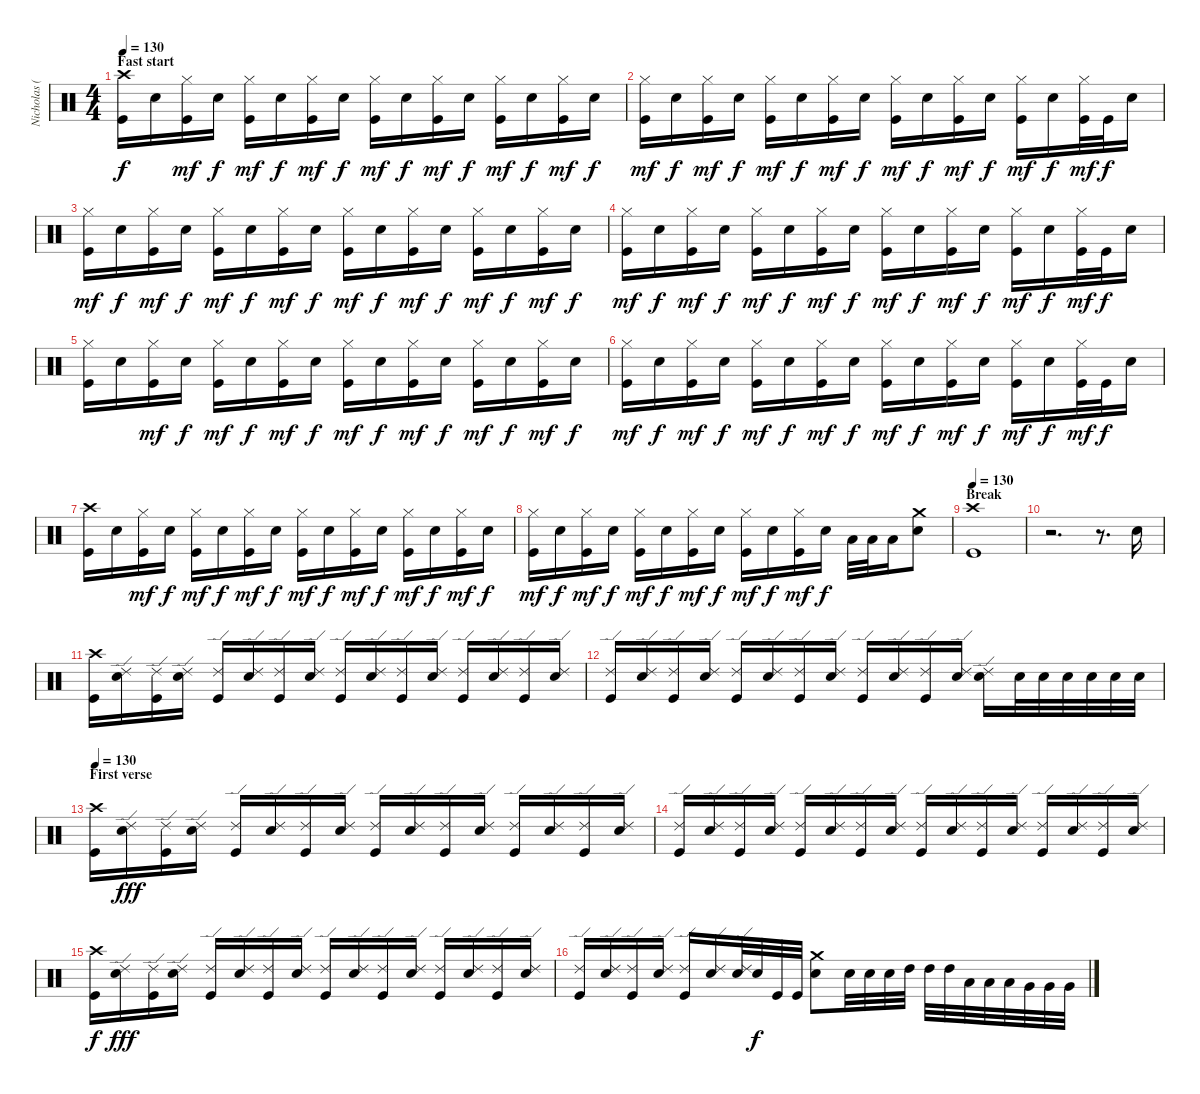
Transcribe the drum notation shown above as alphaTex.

\track ("Nicholas (Drums)" "Nicholas (") {instrument percussion}
\staff {score}
\articulation defaults
\ts (4 4)
\section ("" "Fast start")
\tempo 130
\clef neutral
\ks c
("Crash high (hit)" "Kick (hit)").16{dy f volume 16} "Electric Snare (hit)".16 ("Hi-Hat (closed)" "Kick (hit)").16{dy mf} "Electric Snare (hit)".16{dy f} ("Hi-Hat (closed)" "Kick (hit)").16{dy mf} "Electric Snare (hit)".16{dy f} ("Hi-Hat (closed)" "Kick (hit)").16{dy mf} "Electric Snare (hit)".16{dy f} ("Hi-Hat (closed)" "Kick (hit)").16{dy mf} "Electric Snare (hit)".16{dy f} ("Hi-Hat (closed)" "Kick (hit)").16{dy mf} "Electric Snare (hit)".16{dy f} ("Hi-Hat (closed)" "Kick (hit)").16{dy mf} "Electric Snare (hit)".16{dy f} ("Hi-Hat (closed)" "Kick (hit)").16{dy mf} "Electric Snare (hit)".16{dy f} |
("Hi-Hat (closed)" "Kick (hit)").16{dy mf} "Electric Snare (hit)".16{dy f} ("Hi-Hat (closed)" "Kick (hit)").16{dy mf} "Electric Snare (hit)".16{dy f} ("Hi-Hat (closed)" "Kick (hit)").16{dy mf} "Electric Snare (hit)".16{dy f} ("Hi-Hat (closed)" "Kick (hit)").16{dy mf} "Electric Snare (hit)".16{dy f} ("Hi-Hat (closed)" "Kick (hit)").16{dy mf} "Electric Snare (hit)".16{dy f} ("Hi-Hat (closed)" "Kick (hit)").16{dy mf} "Electric Snare (hit)".16{dy f} ("Hi-Hat (closed)" "Kick (hit)").16{dy mf} "Electric Snare (hit)".16{dy f} ("Hi-Hat (closed)" "Kick (hit)").32{dy mf} "Kick (hit)".32{dy f} "Electric Snare (hit)".16 |
("Hi-Hat (closed)" "Kick (hit)").16{dy mf} "Electric Snare (hit)".16{dy f} ("Hi-Hat (closed)" "Kick (hit)").16{dy mf} "Electric Snare (hit)".16{dy f} ("Hi-Hat (closed)" "Kick (hit)").16{dy mf} "Electric Snare (hit)".16{dy f} ("Hi-Hat (closed)" "Kick (hit)").16{dy mf} "Electric Snare (hit)".16{dy f} ("Hi-Hat (closed)" "Kick (hit)").16{dy mf} "Electric Snare (hit)".16{dy f} ("Hi-Hat (closed)" "Kick (hit)").16{dy mf} "Electric Snare (hit)".16{dy f} ("Hi-Hat (closed)" "Kick (hit)").16{dy mf} "Electric Snare (hit)".16{dy f} ("Hi-Hat (closed)" "Kick (hit)").16{dy mf} "Electric Snare (hit)".16{dy f} |
("Hi-Hat (closed)" "Kick (hit)").16{dy mf} "Electric Snare (hit)".16{dy f} ("Hi-Hat (closed)" "Kick (hit)").16{dy mf} "Electric Snare (hit)".16{dy f} ("Hi-Hat (closed)" "Kick (hit)").16{dy mf} "Electric Snare (hit)".16{dy f} ("Hi-Hat (closed)" "Kick (hit)").16{dy mf} "Electric Snare (hit)".16{dy f} ("Hi-Hat (closed)" "Kick (hit)").16{dy mf} "Electric Snare (hit)".16{dy f} ("Hi-Hat (closed)" "Kick (hit)").16{dy mf} "Electric Snare (hit)".16{dy f} ("Hi-Hat (closed)" "Kick (hit)").16{dy mf} "Electric Snare (hit)".16{dy f} ("Hi-Hat (closed)" "Kick (hit)").32{dy mf} "Kick (hit)".32{dy f} "Electric Snare (hit)".16 |
("Hi-Hat (closed)" "Kick (hit)").16 "Electric Snare (hit)".16 ("Hi-Hat (closed)" "Kick (hit)").16{dy mf} "Electric Snare (hit)".16{dy f} ("Hi-Hat (closed)" "Kick (hit)").16{dy mf} "Electric Snare (hit)".16{dy f} ("Hi-Hat (closed)" "Kick (hit)").16{dy mf} "Electric Snare (hit)".16{dy f} ("Hi-Hat (closed)" "Kick (hit)").16{dy mf} "Electric Snare (hit)".16{dy f} ("Hi-Hat (closed)" "Kick (hit)").16{dy mf} "Electric Snare (hit)".16{dy f} ("Hi-Hat (closed)" "Kick (hit)").16{dy mf} "Electric Snare (hit)".16{dy f} ("Hi-Hat (closed)" "Kick (hit)").16{dy mf} "Electric Snare (hit)".16{dy f} |
("Hi-Hat (closed)" "Kick (hit)").16{dy mf} "Electric Snare (hit)".16{dy f} ("Hi-Hat (closed)" "Kick (hit)").16{dy mf} "Electric Snare (hit)".16{dy f} ("Hi-Hat (closed)" "Kick (hit)").16{dy mf} "Electric Snare (hit)".16{dy f} ("Hi-Hat (closed)" "Kick (hit)").16{dy mf} "Electric Snare (hit)".16{dy f} ("Hi-Hat (closed)" "Kick (hit)").16{dy mf} "Electric Snare (hit)".16{dy f} ("Hi-Hat (closed)" "Kick (hit)").16{dy mf} "Electric Snare (hit)".16{dy f} ("Hi-Hat (closed)" "Kick (hit)").16{dy mf} "Electric Snare (hit)".16{dy f} ("Hi-Hat (closed)" "Kick (hit)").32{dy mf} "Kick (hit)".32{dy f} "Electric Snare (hit)".16 |
("Crash high (hit)" "Kick (hit)").16 "Electric Snare (hit)".16 ("Hi-Hat (closed)" "Kick (hit)").16{dy mf} "Electric Snare (hit)".16{dy f} ("Hi-Hat (closed)" "Kick (hit)").16{dy mf} "Electric Snare (hit)".16{dy f} ("Hi-Hat (closed)" "Kick (hit)").16{dy mf} "Electric Snare (hit)".16{dy f} ("Hi-Hat (closed)" "Kick (hit)").16{dy mf} "Electric Snare (hit)".16{dy f} ("Hi-Hat (closed)" "Kick (hit)").16{dy mf} "Electric Snare (hit)".16{dy f} ("Hi-Hat (closed)" "Kick (hit)").16{dy mf} "Electric Snare (hit)".16{dy f} ("Hi-Hat (closed)" "Kick (hit)").16{dy mf} "Electric Snare (hit)".16{dy f} |
("Hi-Hat (closed)" "Kick (hit)").16{dy mf} "Electric Snare (hit)".16{dy f} ("Hi-Hat (closed)" "Kick (hit)").16{dy mf} "Electric Snare (hit)".16{dy f} ("Hi-Hat (closed)" "Kick (hit)").16{dy mf} "Electric Snare (hit)".16{dy f} ("Hi-Hat (closed)" "Kick (hit)").16{dy mf} "Electric Snare (hit)".16{dy f} ("Hi-Hat (closed)" "Kick (hit)").16{dy mf} "Electric Snare (hit)".16{dy f} ("Hi-Hat (closed)" "Kick (hit)").16{dy mf} "Electric Snare (hit)".16{dy f} "Low Tom (hit)".32 "Low Tom (hit)".32 "Low Tom (hit)".16 ("Crash medium (hit)" "Electric Snare (hit)").8 |
\section ("" "Break")
\tempo 130
("Crash high (hit)" "Kick (hit)").1 |
r.2{d} r.8{d} "Electric Snare (hit)".16 |
("Crash high (hit)" "Kick (hit)").16 ("Ride (edge) 2" "Electric Snare (hit)").16 ("Ride (edge) 2" "Kick (hit)").16 ("Ride (edge) 2" "Electric Snare (hit)").16 ("Ride (edge) 2" "Kick (hit)").16 ("Ride (edge) 2" "Electric Snare (hit)").16 ("Ride (edge) 2" "Kick (hit)").16 ("Ride (edge) 2" "Electric Snare (hit)").16 ("Ride (edge) 2" "Kick (hit)").16 ("Ride (edge) 2" "Electric Snare (hit)").16 ("Ride (edge) 2" "Kick (hit)").16 ("Ride (edge) 2" "Electric Snare (hit)").16 ("Ride (edge) 2" "Kick (hit)").16 ("Ride (edge) 2" "Electric Snare (hit)").16 ("Ride (edge) 2" "Kick (hit)").16 ("Ride (edge) 2" "Electric Snare (hit)").16 |
("Ride (edge) 2" "Kick (hit)").16 ("Ride (edge) 2" "Electric Snare (hit)").16 ("Ride (edge) 2" "Kick (hit)").16 ("Ride (edge) 2" "Electric Snare (hit)").16 ("Ride (edge) 2" "Kick (hit)").16 ("Ride (edge) 2" "Electric Snare (hit)").16 ("Ride (edge) 2" "Kick (hit)").16 ("Ride (edge) 2" "Electric Snare (hit)").16 ("Ride (edge) 2" "Kick (hit)").16 ("Ride (edge) 2" "Electric Snare (hit)").16 ("Ride (edge) 2" "Kick (hit)").16 ("Ride (edge) 2" "Electric Snare (hit)").16 ("Ride (edge) 2" "Electric Snare (hit)").16 "Electric Snare (hit)".32 "Electric Snare (hit)".32 "Electric Snare (hit)".32 "Electric Snare (hit)".32 "Electric Snare (hit)".32 "Electric Snare (hit)".32 |
\section ("" "First verse")
\tempo 130
("Crash high (hit)" "Kick (hit)").16 ("Ride (edge) 2" "Electric Snare (hit)").16{dy fff} ("Ride (edge) 2" "Kick (hit)").16 ("Ride (edge) 2" "Electric Snare (hit)").16 ("Ride (edge) 2" "Kick (hit)").16 ("Ride (edge) 2" "Electric Snare (hit)").16 ("Ride (edge) 2" "Kick (hit)").16 ("Ride (edge) 2" "Electric Snare (hit)").16 ("Ride (edge) 2" "Kick (hit)").16 ("Ride (edge) 2" "Electric Snare (hit)").16 ("Ride (edge) 2" "Kick (hit)").16 ("Ride (edge) 2" "Electric Snare (hit)").16 ("Ride (edge) 2" "Kick (hit)").16 ("Ride (edge) 2" "Electric Snare (hit)").16 ("Ride (edge) 2" "Kick (hit)").16 ("Ride (edge) 2" "Electric Snare (hit)").16 |
("Ride (edge) 2" "Kick (hit)").16 ("Ride (edge) 2" "Electric Snare (hit)").16 ("Ride (edge) 2" "Kick (hit)").16 ("Ride (edge) 2" "Electric Snare (hit)").16 ("Ride (edge) 2" "Kick (hit)").16 ("Ride (edge) 2" "Electric Snare (hit)").16 ("Ride (edge) 2" "Kick (hit)").16 ("Ride (edge) 2" "Electric Snare (hit)").16 ("Ride (edge) 2" "Kick (hit)").16 ("Ride (edge) 2" "Electric Snare (hit)").16 ("Ride (edge) 2" "Kick (hit)").16 ("Ride (edge) 2" "Electric Snare (hit)").16 ("Ride (edge) 2" "Kick (hit)").16 ("Ride (edge) 2" "Electric Snare (hit)").16 ("Ride (edge) 2" "Kick (hit)").16 ("Ride (edge) 2" "Electric Snare (hit)").16 |
("Crash high (hit)" "Kick (hit)").16{dy f} ("Ride (edge) 2" "Electric Snare (hit)").16{dy fff} ("Ride (edge) 2" "Kick (hit)").16 ("Ride (edge) 2" "Electric Snare (hit)").16 ("Ride (edge) 2" "Kick (hit)").16 ("Ride (edge) 2" "Electric Snare (hit)").16 ("Ride (edge) 2" "Kick (hit)").16 ("Ride (edge) 2" "Electric Snare (hit)").16 ("Ride (edge) 2" "Kick (hit)").16 ("Ride (edge) 2" "Electric Snare (hit)").16 ("Ride (edge) 2" "Kick (hit)").16 ("Ride (edge) 2" "Electric Snare (hit)").16 ("Ride (edge) 2" "Kick (hit)").16 ("Ride (edge) 2" "Electric Snare (hit)").16 ("Ride (edge) 2" "Kick (hit)").16 ("Ride (edge) 2" "Electric Snare (hit)").16 |
("Ride (edge) 2" "Kick (hit)").16 ("Ride (edge) 2" "Electric Snare (hit)").16 ("Ride (edge) 2" "Kick (hit)").16 ("Ride (edge) 2" "Electric Snare (hit)").16 ("Ride (edge) 2" "Kick (hit)").16 ("Ride (edge) 2" "Electric Snare (hit)").16 ("Ride (edge) 2" "Electric Snare (hit)").32 "Electric Snare (hit)".32{dy f} "Kick (hit)".32 "Kick (hit)".32 ("Crash medium (hit)" "Electric Snare (hit)").8 "Electric Snare (hit)".32 "Electric Snare (hit)".32 "Electric Snare (hit)".32 "High Tom (hit)".32 "High Tom (hit)".32 "High Tom (hit)".32 "Low Tom (hit)".32 "Low Tom (hit)".32 "Low Tom (hit)".32 "Very Low Tom (hit)".32 "Very Low Tom (hit)".32 "Very Low Tom (hit)".32
